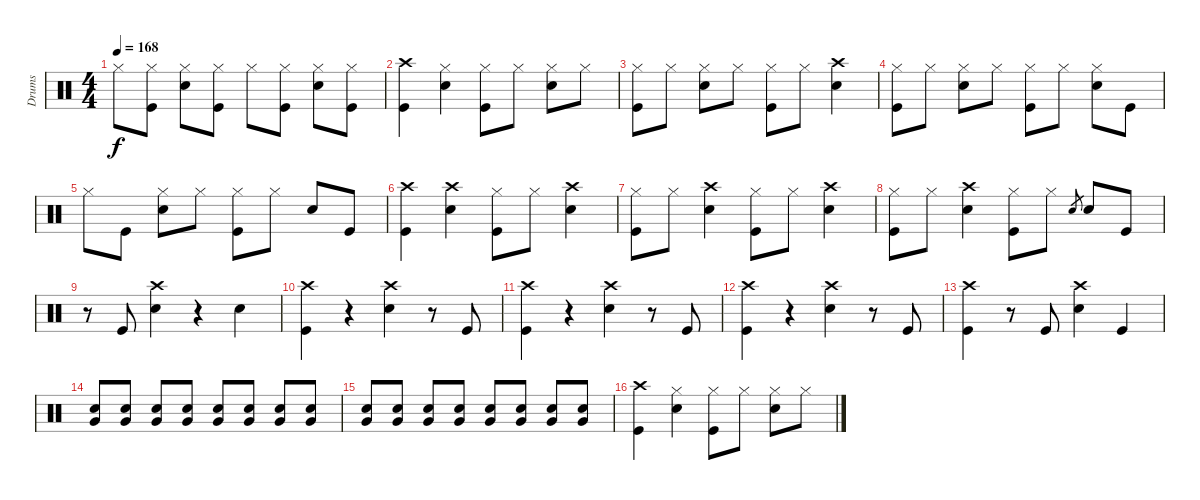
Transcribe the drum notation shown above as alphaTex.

\track ("Drums" "Drums") {instrument percussion}
\staff {score}
\articulation defaults
\ts (4 4)
\tempo 168
\clef neutral
\ks c "Hi-Hat (closed)".8{dy f}
("Hi-Hat (closed)" "Kick (hit)").8 ("Hi-Hat (closed)" "Electric Snare (hit)").8 ("Hi-Hat (closed)" "Kick (hit)").8 "Hi-Hat (closed)".8 ("Hi-Hat (closed)" "Kick (hit)").8 ("Hi-Hat (closed)" "Electric Snare (hit)").8 ("Hi-Hat (closed)" "Kick (hit)").8 |
("Crash high (hit)" "Kick (hit)").4 ("Hi-Hat (closed)" "Electric Snare (hit)").4 ("Hi-Hat (closed)" "Kick (hit)").8 "Hi-Hat (closed)".8 ("Hi-Hat (closed)" "Electric Snare (hit)").8 "Hi-Hat (closed)".8 |
("Hi-Hat (closed)" "Kick (hit)").8 "Hi-Hat (closed)".8 ("Hi-Hat (closed)" "Electric Snare (hit)").8 "Hi-Hat (closed)".8 ("Hi-Hat (closed)" "Kick (hit)").8 "Hi-Hat (closed)".8 ("Crash high (hit)" "Electric Snare (hit)").4 |
("Hi-Hat (closed)" "Kick (hit)").8 "Hi-Hat (closed)".8 ("Hi-Hat (closed)" "Electric Snare (hit)").8 "Hi-Hat (closed)".8 ("Hi-Hat (closed)" "Kick (hit)").8 "Hi-Hat (closed)".8 ("Hi-Hat (closed)" "Electric Snare (hit)").8 "Kick (hit)".8 |
"Hi-Hat (closed)".8 "Kick (hit)".8 ("Hi-Hat (closed)" "Electric Snare (hit)").8 "Hi-Hat (closed)".8 ("Hi-Hat (closed)" "Kick (hit)").8 "Hi-Hat (closed)".8 "Electric Snare (hit)".8 "Kick (hit)".8 |
("Crash high (hit)" "Kick (hit)").4 ("Crash high (hit)" "Electric Snare (hit)").4 ("Hi-Hat (closed)" "Kick (hit)").8 "Hi-Hat (closed)".8 ("Crash high (hit)" "Electric Snare (hit)").4 |
("Hi-Hat (closed)" "Kick (hit)").8 "Hi-Hat (closed)".8 ("Crash high (hit)" "Electric Snare (hit)").4 ("Hi-Hat (closed)" "Kick (hit)").8 "Hi-Hat (closed)".8 ("Crash high (hit)" "Electric Snare (hit)").4 |
("Hi-Hat (closed)" "Kick (hit)").8 "Hi-Hat (closed)".8 ("Crash high (hit)" "Electric Snare (hit)").4 ("Hi-Hat (closed)" "Kick (hit)").8 "Hi-Hat (closed)".8 "Electric Snare (hit)".8{gr} "Electric Snare (hit)".8 "Kick (hit)".8 |
r.8 "Kick (hit)".8 ("Crash high (hit)" "Electric Snare (hit)").4 r.4 "Electric Snare (hit)".4 |
("Crash high (hit)" "Kick (hit)").4 r.4 ("Crash high (hit)" "Electric Snare (hit)").4 r.8 "Kick (hit)".8 |
("Crash high (hit)" "Kick (hit)").4 r.4 ("Crash high (hit)" "Electric Snare (hit)").4 r.8 "Kick (hit)".8 |
("Crash high (hit)" "Kick (hit)").4 r.4 ("Crash high (hit)" "Electric Snare (hit)").4 r.8 "Kick (hit)".8 |
("Crash high (hit)" "Kick (hit)").4 r.8 "Kick (hit)".8 ("Crash high (hit)" "Electric Snare (hit)").4 "Kick (hit)".4 |
("Electric Snare (hit)" "Very Low Tom (hit)").8 ("Electric Snare (hit)" "Very Low Tom (hit)").8 ("Electric Snare (hit)" "Very Low Tom (hit)").8 ("Electric Snare (hit)" "Very Low Tom (hit)").8 ("Electric Snare (hit)" "Very Low Tom (hit)").8 ("Electric Snare (hit)" "Very Low Tom (hit)").8 ("Electric Snare (hit)" "Very Low Tom (hit)").8 ("Electric Snare (hit)" "Very Low Tom (hit)").8 |
("Electric Snare (hit)" "Very Low Tom (hit)").8 ("Electric Snare (hit)" "Very Low Tom (hit)").8 ("Electric Snare (hit)" "Very Low Tom (hit)").8 ("Electric Snare (hit)" "Very Low Tom (hit)").8 ("Electric Snare (hit)" "Very Low Tom (hit)").8 ("Electric Snare (hit)" "Very Low Tom (hit)").8 ("Electric Snare (hit)" "Very Low Tom (hit)").8 ("Electric Snare (hit)" "Very Low Tom (hit)").8 |
("Crash high (hit)" "Kick (hit)").4 ("Hi-Hat (closed)" "Electric Snare (hit)").4 ("Hi-Hat (closed)" "Kick (hit)").8 "Hi-Hat (closed)".8 ("Hi-Hat (closed)" "Electric Snare (hit)").8 "Hi-Hat (closed)".8
